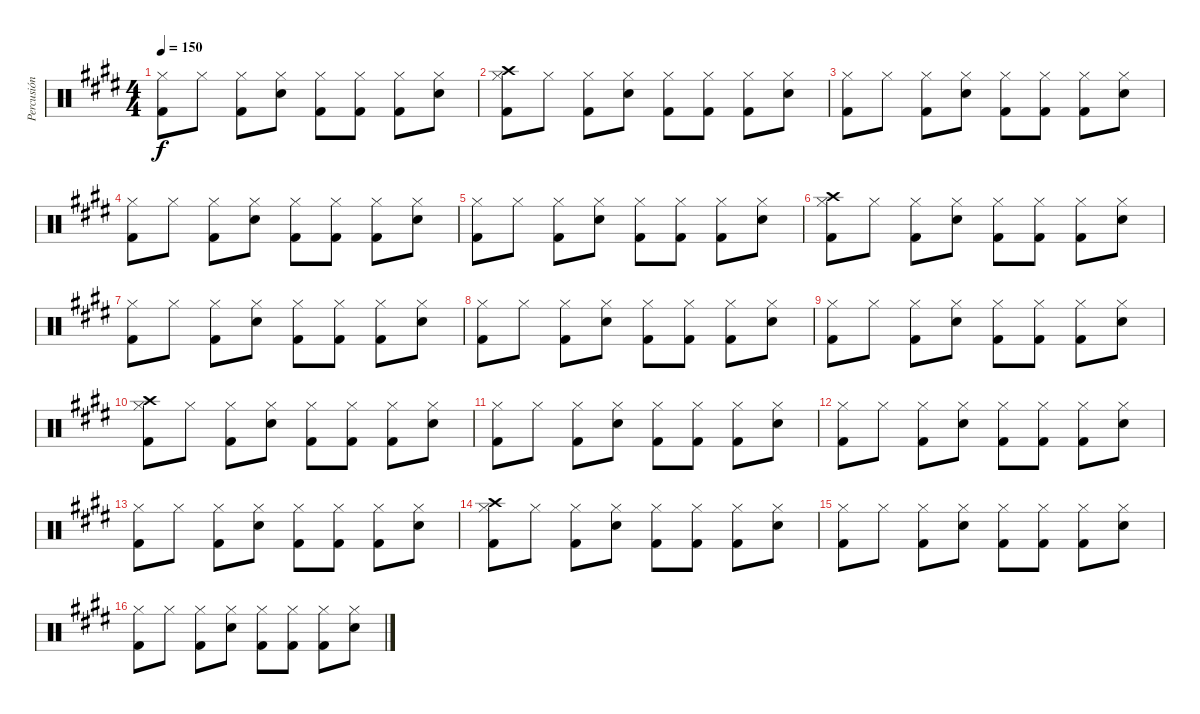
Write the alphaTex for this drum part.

\track ("Percusión" "Percusión") {instrument percussion}
\staff {score}
\articulation defaults
\ts (4 4)
\tempo 150
\clef neutral
\ks e
("Kick (hit) 2" "Hi-Hat (closed)").8{dy f} "Hi-Hat (closed)".8 ("Kick (hit) 2" "Hi-Hat (closed)").8 ("Snare (hit) 2" "Hi-Hat (closed)").8 ("Kick (hit) 2" "Hi-Hat (closed)").8 ("Kick (hit) 2" "Hi-Hat (closed)").8 ("Kick (hit) 2" "Hi-Hat (closed)").8 ("Snare (hit) 2" "Hi-Hat (closed)").8 |
("Kick (hit) 2" "Hi-Hat (closed)" "Crash high (hit)").8 "Hi-Hat (closed)".8 ("Kick (hit) 2" "Hi-Hat (closed)").8 ("Snare (hit) 2" "Hi-Hat (closed)").8 ("Kick (hit) 2" "Hi-Hat (closed)").8 ("Kick (hit) 2" "Hi-Hat (closed)").8 ("Kick (hit) 2" "Hi-Hat (closed)").8 ("Snare (hit) 2" "Hi-Hat (closed)").8 |
("Kick (hit) 2" "Hi-Hat (closed)").8 "Hi-Hat (closed)".8 ("Kick (hit) 2" "Hi-Hat (closed)").8 ("Snare (hit) 2" "Hi-Hat (closed)").8 ("Kick (hit) 2" "Hi-Hat (closed)").8 ("Kick (hit) 2" "Hi-Hat (closed)").8 ("Kick (hit) 2" "Hi-Hat (closed)").8 ("Snare (hit) 2" "Hi-Hat (closed)").8 |
("Kick (hit) 2" "Hi-Hat (closed)").8 "Hi-Hat (closed)".8 ("Kick (hit) 2" "Hi-Hat (closed)").8 ("Snare (hit) 2" "Hi-Hat (closed)").8 ("Kick (hit) 2" "Hi-Hat (closed)").8 ("Kick (hit) 2" "Hi-Hat (closed)").8 ("Kick (hit) 2" "Hi-Hat (closed)").8 ("Snare (hit) 2" "Hi-Hat (closed)").8 |
("Kick (hit) 2" "Hi-Hat (closed)").8 "Hi-Hat (closed)".8 ("Kick (hit) 2" "Hi-Hat (closed)").8 ("Snare (hit) 2" "Hi-Hat (closed)").8 ("Kick (hit) 2" "Hi-Hat (closed)").8 ("Kick (hit) 2" "Hi-Hat (closed)").8 ("Kick (hit) 2" "Hi-Hat (closed)").8 ("Snare (hit) 2" "Hi-Hat (closed)").8 |
("Kick (hit) 2" "Hi-Hat (closed)" "Crash high (hit)").8 "Hi-Hat (closed)".8 ("Kick (hit) 2" "Hi-Hat (closed)").8 ("Snare (hit) 2" "Hi-Hat (closed)").8 ("Kick (hit) 2" "Hi-Hat (closed)").8 ("Kick (hit) 2" "Hi-Hat (closed)").8 ("Kick (hit) 2" "Hi-Hat (closed)").8 ("Snare (hit) 2" "Hi-Hat (closed)").8 |
("Kick (hit) 2" "Hi-Hat (closed)").8 "Hi-Hat (closed)".8 ("Kick (hit) 2" "Hi-Hat (closed)").8 ("Snare (hit) 2" "Hi-Hat (closed)").8 ("Kick (hit) 2" "Hi-Hat (closed)").8 ("Kick (hit) 2" "Hi-Hat (closed)").8 ("Kick (hit) 2" "Hi-Hat (closed)").8 ("Snare (hit) 2" "Hi-Hat (closed)").8 |
("Kick (hit) 2" "Hi-Hat (closed)").8 "Hi-Hat (closed)".8 ("Kick (hit) 2" "Hi-Hat (closed)").8 ("Snare (hit) 2" "Hi-Hat (closed)").8 ("Kick (hit) 2" "Hi-Hat (closed)").8 ("Kick (hit) 2" "Hi-Hat (closed)").8 ("Kick (hit) 2" "Hi-Hat (closed)").8 ("Snare (hit) 2" "Hi-Hat (closed)").8 |
("Kick (hit) 2" "Hi-Hat (closed)").8 "Hi-Hat (closed)".8 ("Kick (hit) 2" "Hi-Hat (closed)").8 ("Snare (hit) 2" "Hi-Hat (closed)").8 ("Kick (hit) 2" "Hi-Hat (closed)").8 ("Kick (hit) 2" "Hi-Hat (closed)").8 ("Kick (hit) 2" "Hi-Hat (closed)").8 ("Snare (hit) 2" "Hi-Hat (closed)").8 |
("Kick (hit) 2" "Hi-Hat (closed)" "Crash high (hit)").8 "Hi-Hat (closed)".8 ("Kick (hit) 2" "Hi-Hat (closed)").8 ("Snare (hit) 2" "Hi-Hat (closed)").8 ("Kick (hit) 2" "Hi-Hat (closed)").8 ("Kick (hit) 2" "Hi-Hat (closed)").8 ("Kick (hit) 2" "Hi-Hat (closed)").8 ("Snare (hit) 2" "Hi-Hat (closed)").8 |
("Kick (hit) 2" "Hi-Hat (closed)").8 "Hi-Hat (closed)".8 ("Kick (hit) 2" "Hi-Hat (closed)").8 ("Snare (hit) 2" "Hi-Hat (closed)").8 ("Kick (hit) 2" "Hi-Hat (closed)").8 ("Kick (hit) 2" "Hi-Hat (closed)").8 ("Kick (hit) 2" "Hi-Hat (closed)").8 ("Snare (hit) 2" "Hi-Hat (closed)").8 |
("Kick (hit) 2" "Hi-Hat (closed)").8 "Hi-Hat (closed)".8 ("Kick (hit) 2" "Hi-Hat (closed)").8 ("Snare (hit) 2" "Hi-Hat (closed)").8 ("Kick (hit) 2" "Hi-Hat (closed)").8 ("Kick (hit) 2" "Hi-Hat (closed)").8 ("Kick (hit) 2" "Hi-Hat (closed)").8 ("Snare (hit) 2" "Hi-Hat (closed)").8 |
("Kick (hit) 2" "Hi-Hat (closed)").8 "Hi-Hat (closed)".8 ("Kick (hit) 2" "Hi-Hat (closed)").8 ("Snare (hit) 2" "Hi-Hat (closed)").8 ("Kick (hit) 2" "Hi-Hat (closed)").8 ("Kick (hit) 2" "Hi-Hat (closed)").8 ("Kick (hit) 2" "Hi-Hat (closed)").8 ("Snare (hit) 2" "Hi-Hat (closed)").8 |
("Kick (hit) 2" "Hi-Hat (closed)" "Crash high (hit)").8 "Hi-Hat (closed)".8 ("Kick (hit) 2" "Hi-Hat (closed)").8 ("Snare (hit) 2" "Hi-Hat (closed)").8 ("Kick (hit) 2" "Hi-Hat (closed)").8 ("Kick (hit) 2" "Hi-Hat (closed)").8 ("Kick (hit) 2" "Hi-Hat (closed)").8 ("Snare (hit) 2" "Hi-Hat (closed)").8 |
("Kick (hit) 2" "Hi-Hat (closed)").8 "Hi-Hat (closed)".8 ("Kick (hit) 2" "Hi-Hat (closed)").8 ("Snare (hit) 2" "Hi-Hat (closed)").8 ("Kick (hit) 2" "Hi-Hat (closed)").8 ("Kick (hit) 2" "Hi-Hat (closed)").8 ("Kick (hit) 2" "Hi-Hat (closed)").8 ("Snare (hit) 2" "Hi-Hat (closed)").8 |
("Kick (hit) 2" "Hi-Hat (closed)").8 "Hi-Hat (closed)".8 ("Kick (hit) 2" "Hi-Hat (closed)").8 ("Snare (hit) 2" "Hi-Hat (closed)").8 ("Kick (hit) 2" "Hi-Hat (closed)").8 ("Kick (hit) 2" "Hi-Hat (closed)").8 ("Kick (hit) 2" "Hi-Hat (closed)").8 ("Snare (hit) 2" "Hi-Hat (closed)").8
